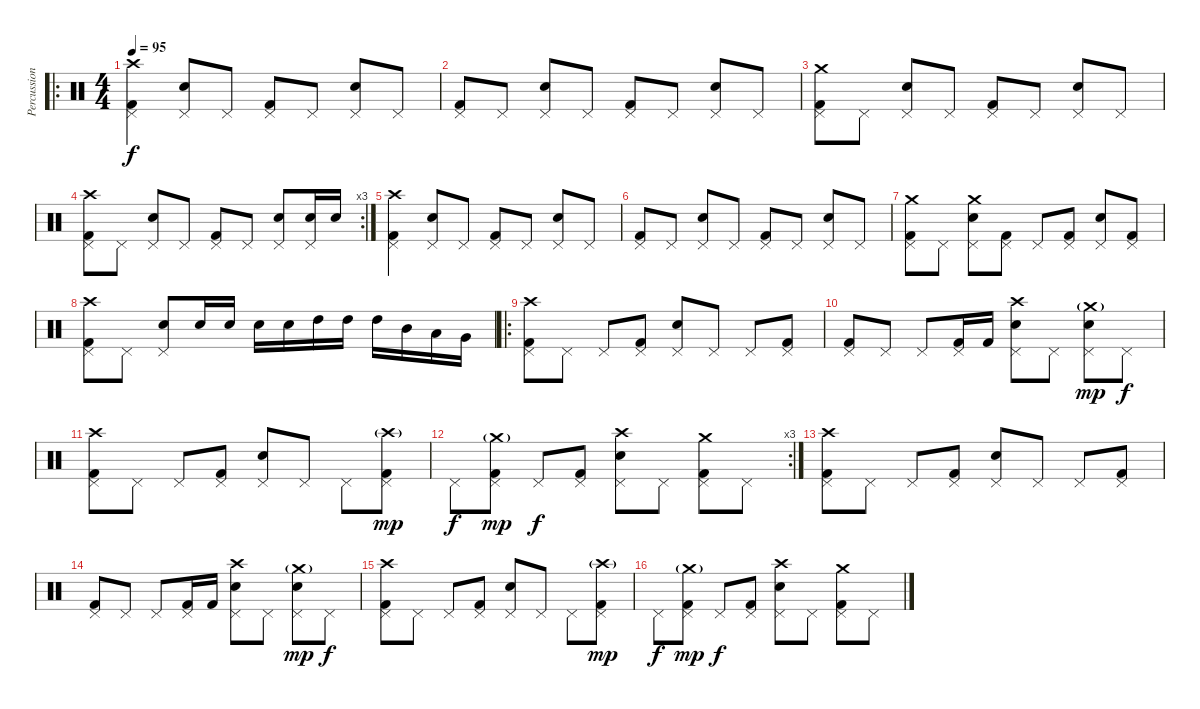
\track ("Percussion" "Percussion") {instrument percussion}
\staff {score}
\articulation defaults
\ro
\ts (4 4)
\tempo 95
\clef neutral
\ks c
("Crash high (hit)" "Pedal Hi-Hat (hit)" "Kick (hit) 2").4{dy f} ("Pedal Hi-Hat (hit)" "Snare (hit) 2").8 "Pedal Hi-Hat (hit)".8 ("Pedal Hi-Hat (hit)" "Kick (hit) 2").8 "Pedal Hi-Hat (hit)".8 ("Pedal Hi-Hat (hit)" "Snare (hit) 2").8 "Pedal Hi-Hat (hit)".8 |
("Pedal Hi-Hat (hit)" "Kick (hit) 2").8 "Pedal Hi-Hat (hit)".8 ("Pedal Hi-Hat (hit)" "Snare (hit) 2").8 "Pedal Hi-Hat (hit)".8 ("Pedal Hi-Hat (hit)" "Kick (hit) 2").8 "Pedal Hi-Hat (hit)".8 ("Pedal Hi-Hat (hit)" "Snare (hit) 2").8 "Pedal Hi-Hat (hit)".8 |
("Crash medium (hit)" "Pedal Hi-Hat (hit)" "Kick (hit) 2").8 "Pedal Hi-Hat (hit)".8 ("Pedal Hi-Hat (hit)" "Snare (hit) 2").8 "Pedal Hi-Hat (hit)".8 ("Pedal Hi-Hat (hit)" "Kick (hit) 2").8 "Pedal Hi-Hat (hit)".8 ("Pedal Hi-Hat (hit)" "Snare (hit) 2").8 "Pedal Hi-Hat (hit)".8 |
\rc 3
("Crash high (hit)" "Pedal Hi-Hat (hit)" "Kick (hit) 2").8 "Pedal Hi-Hat (hit)".8 ("Pedal Hi-Hat (hit)" "Snare (hit) 2").8 "Pedal Hi-Hat (hit)".8 ("Pedal Hi-Hat (hit)" "Kick (hit) 2").8 "Pedal Hi-Hat (hit)".8 ("Pedal Hi-Hat (hit)" "Snare (hit) 2").8 ("Pedal Hi-Hat (hit)" "Snare (hit) 2").16 "Snare (hit) 2".16 |
("Crash high (hit)" "Pedal Hi-Hat (hit)" "Kick (hit) 2").4 ("Pedal Hi-Hat (hit)" "Snare (hit) 2").8 "Pedal Hi-Hat (hit)".8 ("Pedal Hi-Hat (hit)" "Kick (hit) 2").8 "Pedal Hi-Hat (hit)".8 ("Pedal Hi-Hat (hit)" "Snare (hit) 2").8 "Pedal Hi-Hat (hit)".8 |
("Pedal Hi-Hat (hit)" "Kick (hit) 2").8 "Pedal Hi-Hat (hit)".8 ("Pedal Hi-Hat (hit)" "Snare (hit) 2").8 "Pedal Hi-Hat (hit)".8 ("Pedal Hi-Hat (hit)" "Kick (hit) 2").8 "Pedal Hi-Hat (hit)".8 ("Pedal Hi-Hat (hit)" "Snare (hit) 2").8 "Pedal Hi-Hat (hit)".8 |
("Crash medium (hit)" "Pedal Hi-Hat (hit)" "Kick (hit) 2").8 "Pedal Hi-Hat (hit)".8 ("Crash medium (hit)" "Pedal Hi-Hat (hit)" "Snare (hit) 2").8 ("Pedal Hi-Hat (hit)" "Kick (hit) 2").8 "Pedal Hi-Hat (hit)".8 ("Pedal Hi-Hat (hit)" "Kick (hit) 2").8 ("Pedal Hi-Hat (hit)" "Snare (hit) 2").8 ("Pedal Hi-Hat (hit)" "Kick (hit) 2").8 |
("Crash high (hit)" "Pedal Hi-Hat (hit)" "Kick (hit) 2").8 "Pedal Hi-Hat (hit)".8 ("Pedal Hi-Hat (hit)" "Snare (hit) 2").8 "Snare (hit) 2".16 "Snare (hit) 2".16 "Snare (hit) 2".16 "Snare (hit) 2".16 "High Tom (hit)".16 "High Tom (hit)".16 "High Tom (hit)".16 "Mid Tom (hit)".16 "Low Tom (hit)".16 "Very Low Tom (hit)".16 |
\ro
("Crash high (hit)" "Pedal Hi-Hat (hit)" "Kick (hit) 2").8 "Pedal Hi-Hat (hit)".8 "Pedal Hi-Hat (hit)".8 ("Pedal Hi-Hat (hit)" "Kick (hit) 2").8 ("Pedal Hi-Hat (hit)" "Snare (hit) 2").8 "Pedal Hi-Hat (hit)".8 "Pedal Hi-Hat (hit)".8 ("Pedal Hi-Hat (hit)" "Kick (hit) 2").8 |
("Pedal Hi-Hat (hit)" "Kick (hit) 2").8 "Pedal Hi-Hat (hit)".8 "Pedal Hi-Hat (hit)".8 ("Pedal Hi-Hat (hit)" "Kick (hit) 2").16 "Kick (hit) 2".16 ("Crash high (hit)" "Pedal Hi-Hat (hit)" "Snare (hit) 2").8 "Pedal Hi-Hat (hit)".8 ("Crash medium (hit)"{g} "Pedal Hi-Hat (hit)" "Snare (hit) 2").8{dy mp} "Pedal Hi-Hat (hit)".8{dy f} |
("Crash high (hit)" "Pedal Hi-Hat (hit)" "Kick (hit) 2").8 "Pedal Hi-Hat (hit)".8 "Pedal Hi-Hat (hit)".8 ("Pedal Hi-Hat (hit)" "Kick (hit) 2").8 ("Pedal Hi-Hat (hit)" "Snare (hit) 2").8 "Pedal Hi-Hat (hit)".8 "Pedal Hi-Hat (hit)".8 ("Crash high (hit)"{g} "Pedal Hi-Hat (hit)" "Kick (hit) 2").8{dy mp} |
\rc 3 "Pedal Hi-Hat (hit)".8{dy f}
("Crash medium (hit)"{g} "Pedal Hi-Hat (hit)" "Kick (hit) 2").8{dy mp} "Pedal Hi-Hat (hit)".8{dy f} ("Pedal Hi-Hat (hit)" "Kick (hit) 2").8 ("Crash high (hit)" "Pedal Hi-Hat (hit)" "Snare (hit) 2").8 "Pedal Hi-Hat (hit)".8 ("Crash medium (hit)" "Pedal Hi-Hat (hit)" "Kick (hit) 2").8 "Pedal Hi-Hat (hit)".8 |
("Crash high (hit)" "Pedal Hi-Hat (hit)" "Kick (hit) 2").8 "Pedal Hi-Hat (hit)".8 "Pedal Hi-Hat (hit)".8 ("Pedal Hi-Hat (hit)" "Kick (hit) 2").8 ("Pedal Hi-Hat (hit)" "Snare (hit) 2").8 "Pedal Hi-Hat (hit)".8 "Pedal Hi-Hat (hit)".8 ("Pedal Hi-Hat (hit)" "Kick (hit) 2").8 |
("Pedal Hi-Hat (hit)" "Kick (hit) 2").8 "Pedal Hi-Hat (hit)".8 "Pedal Hi-Hat (hit)".8 ("Pedal Hi-Hat (hit)" "Kick (hit) 2").16 "Kick (hit) 2".16 ("Crash high (hit)" "Pedal Hi-Hat (hit)" "Snare (hit) 2").8 "Pedal Hi-Hat (hit)".8 ("Crash medium (hit)"{g} "Pedal Hi-Hat (hit)" "Snare (hit) 2").8{dy mp} "Pedal Hi-Hat (hit)".8{dy f} |
("Crash high (hit)" "Pedal Hi-Hat (hit)" "Kick (hit) 2").8 "Pedal Hi-Hat (hit)".8 "Pedal Hi-Hat (hit)".8 ("Pedal Hi-Hat (hit)" "Kick (hit) 2").8 ("Pedal Hi-Hat (hit)" "Snare (hit) 2").8 "Pedal Hi-Hat (hit)".8 "Pedal Hi-Hat (hit)".8 ("Crash high (hit)"{g} "Pedal Hi-Hat (hit)" "Kick (hit) 2").8{dy mp} |
"Pedal Hi-Hat (hit)".8{dy f} ("Crash medium (hit)"{g} "Pedal Hi-Hat (hit)" "Kick (hit) 2").8{dy mp} "Pedal Hi-Hat (hit)".8{dy f} ("Pedal Hi-Hat (hit)" "Kick (hit) 2").8 ("Crash high (hit)" "Pedal Hi-Hat (hit)" "Snare (hit) 2").8 "Pedal Hi-Hat (hit)".8 ("Crash medium (hit)" "Pedal Hi-Hat (hit)" "Kick (hit) 2").8 "Pedal Hi-Hat (hit)".8
